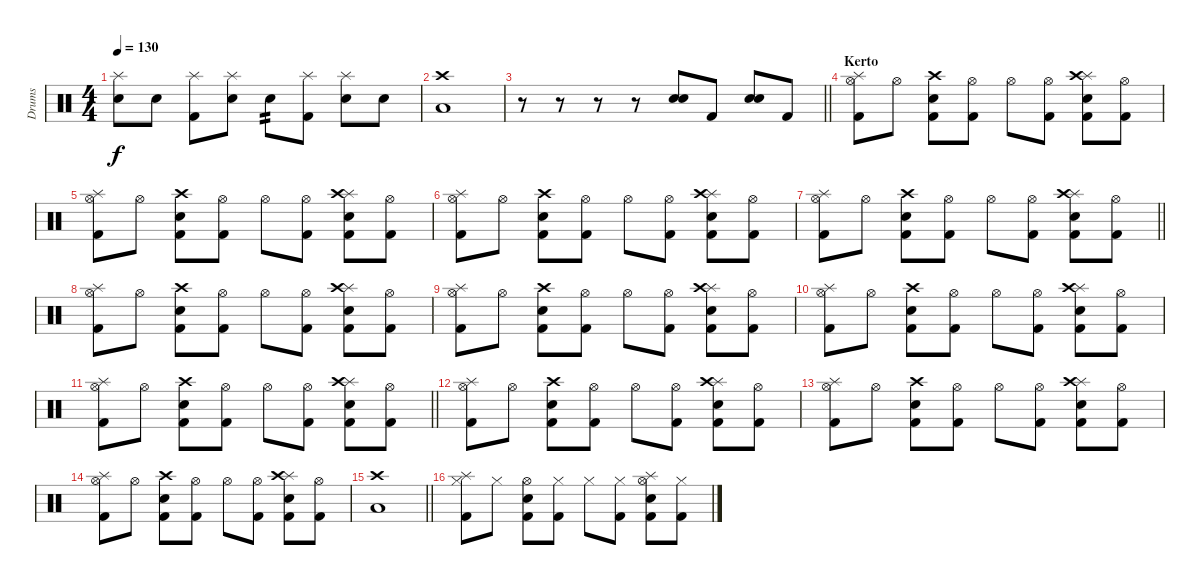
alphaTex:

\track ("Drums" "Drums") {instrument percussion}
\staff {score}
\articulation defaults
\ts (4 4)
\tempo 130
\clef neutral
\ks c
("Splash (hit)" "Electric Snare (hit)").8{dy f} "Electric Snare (hit)".8 ("Splash (hit)" "Kick (hit) 2").8 ("Splash (hit)" "Electric Snare (hit)").8 "Electric Snare (hit)".8{tp 2} ("Splash (hit)" "Kick (hit) 2").8 ("Splash (hit)" "Electric Snare (hit)").8 "Electric Snare (hit)".8 |
("Crash high (hit)" "Low Tom (hit)").1 |
\barLineRight lightlight
r.8 r.8 r.8 r.8 ("Electric Snare (hit)" "Snare (hit) 2").8 "Kick (hit) 2".8 ("Electric Snare (hit)" "Snare (hit) 2").8 "Kick (hit) 2".8 |
\section ("" "Kerto")
("Splash (hit)" "Kick (hit) 2" "Hi-Hat (open)").8 "Hi-Hat (open)".8 ("Electric Snare (hit)" "Kick (hit) 2" "Crash high (hit)").8 ("Kick (hit) 2" "Hi-Hat (open)").8 "Hi-Hat (open)".8 ("Kick (hit) 2" "Hi-Hat (open)").8 ("Splash (hit)" "Electric Snare (hit)" "Kick (hit) 2" "Crash high (hit)").8 ("Kick (hit) 2" "Hi-Hat (open)").8 |
("Splash (hit)" "Kick (hit) 2" "Hi-Hat (open)").8 "Hi-Hat (open)".8 ("Electric Snare (hit)" "Kick (hit) 2" "Crash high (hit)").8 ("Kick (hit) 2" "Hi-Hat (open)").8 "Hi-Hat (open)".8 ("Kick (hit) 2" "Hi-Hat (open)").8 ("Splash (hit)" "Electric Snare (hit)" "Kick (hit) 2" "Crash high (hit)").8 ("Kick (hit) 2" "Hi-Hat (open)").8 |
("Splash (hit)" "Kick (hit) 2" "Hi-Hat (open)").8 "Hi-Hat (open)".8 ("Electric Snare (hit)" "Kick (hit) 2" "Crash high (hit)").8 ("Kick (hit) 2" "Hi-Hat (open)").8 "Hi-Hat (open)".8 ("Kick (hit) 2" "Hi-Hat (open)").8 ("Splash (hit)" "Electric Snare (hit)" "Kick (hit) 2" "Crash high (hit)").8 ("Kick (hit) 2" "Hi-Hat (open)").8 |
\barLineRight lightlight
("Splash (hit)" "Kick (hit) 2" "Hi-Hat (open)").8 "Hi-Hat (open)".8 ("Electric Snare (hit)" "Kick (hit) 2" "Crash high (hit)").8 ("Kick (hit) 2" "Hi-Hat (open)").8 "Hi-Hat (open)".8 ("Kick (hit) 2" "Hi-Hat (open)").8 ("Splash (hit)" "Electric Snare (hit)" "Kick (hit) 2" "Crash high (hit)").8 ("Kick (hit) 2" "Hi-Hat (open)").8 |
("Splash (hit)" "Kick (hit) 2" "Hi-Hat (open)").8 "Hi-Hat (open)".8 ("Electric Snare (hit)" "Kick (hit) 2" "Crash high (hit)").8 ("Kick (hit) 2" "Hi-Hat (open)").8 "Hi-Hat (open)".8 ("Kick (hit) 2" "Hi-Hat (open)").8 ("Splash (hit)" "Electric Snare (hit)" "Kick (hit) 2" "Crash high (hit)").8 ("Kick (hit) 2" "Hi-Hat (open)").8 |
("Splash (hit)" "Kick (hit) 2" "Hi-Hat (open)").8 "Hi-Hat (open)".8 ("Electric Snare (hit)" "Kick (hit) 2" "Crash high (hit)").8 ("Kick (hit) 2" "Hi-Hat (open)").8 "Hi-Hat (open)".8 ("Kick (hit) 2" "Hi-Hat (open)").8 ("Splash (hit)" "Electric Snare (hit)" "Kick (hit) 2" "Crash high (hit)").8 ("Kick (hit) 2" "Hi-Hat (open)").8 |
("Splash (hit)" "Kick (hit) 2" "Hi-Hat (open)").8 "Hi-Hat (open)".8 ("Electric Snare (hit)" "Kick (hit) 2" "Crash high (hit)").8 ("Kick (hit) 2" "Hi-Hat (open)").8 "Hi-Hat (open)".8 ("Kick (hit) 2" "Hi-Hat (open)").8 ("Splash (hit)" "Electric Snare (hit)" "Kick (hit) 2" "Crash high (hit)").8 ("Kick (hit) 2" "Hi-Hat (open)").8 |
\barLineRight lightlight
("Splash (hit)" "Kick (hit) 2" "Hi-Hat (open)").8 "Hi-Hat (open)".8 ("Electric Snare (hit)" "Kick (hit) 2" "Crash high (hit)").8 ("Kick (hit) 2" "Hi-Hat (open)").8 "Hi-Hat (open)".8 ("Kick (hit) 2" "Hi-Hat (open)").8 ("Splash (hit)" "Electric Snare (hit)" "Kick (hit) 2" "Crash high (hit)").8 ("Kick (hit) 2" "Hi-Hat (open)").8 |
("Splash (hit)" "Kick (hit) 2" "Hi-Hat (open)").8 "Hi-Hat (open)".8 ("Electric Snare (hit)" "Kick (hit) 2" "Crash high (hit)").8 ("Kick (hit) 2" "Hi-Hat (open)").8 "Hi-Hat (open)".8 ("Kick (hit) 2" "Hi-Hat (open)").8 ("Splash (hit)" "Electric Snare (hit)" "Kick (hit) 2" "Crash high (hit)").8 ("Kick (hit) 2" "Hi-Hat (open)").8 |
("Splash (hit)" "Kick (hit) 2" "Hi-Hat (open)").8 "Hi-Hat (open)".8 ("Electric Snare (hit)" "Kick (hit) 2" "Crash high (hit)").8 ("Kick (hit) 2" "Hi-Hat (open)").8 "Hi-Hat (open)".8 ("Kick (hit) 2" "Hi-Hat (open)").8 ("Splash (hit)" "Electric Snare (hit)" "Kick (hit) 2" "Crash high (hit)").8 ("Kick (hit) 2" "Hi-Hat (open)").8 |
("Splash (hit)" "Kick (hit) 2" "Hi-Hat (open)").8 "Hi-Hat (open)".8 ("Electric Snare (hit)" "Kick (hit) 2" "Crash high (hit)").8 ("Kick (hit) 2" "Hi-Hat (open)").8 "Hi-Hat (open)".8 ("Kick (hit) 2" "Hi-Hat (open)").8 ("Splash (hit)" "Electric Snare (hit)" "Kick (hit) 2" "Crash high (hit)").8 ("Kick (hit) 2" "Hi-Hat (open)").8 |
\barLineRight lightlight
("Crash high (hit)" "Low Tom (hit)").1 |
("Splash (hit)" "Kick (hit) 2" "Hi-Hat (closed)").8 "Hi-Hat (closed)".8 ("Electric Snare (hit)" "Kick (hit) 2" "Hi-Hat (open)").8 ("Kick (hit) 2" "Hi-Hat (closed)").8 "Hi-Hat (closed)".8 ("Kick (hit) 2" "Hi-Hat (closed)").8 ("Splash (hit)" "Electric Snare (hit)" "Kick (hit) 2" "Hi-Hat (open)").8 ("Kick (hit) 2" "Hi-Hat (closed)").8
